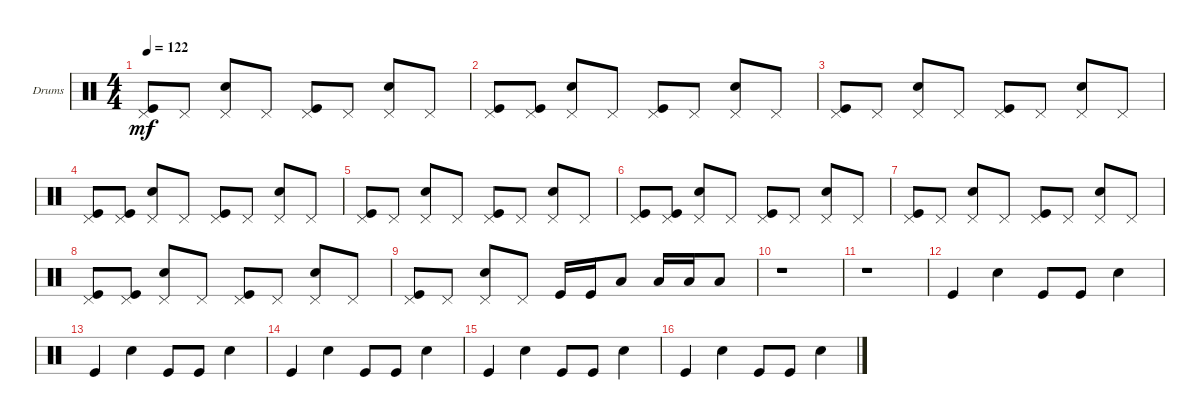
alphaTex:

\defaultSystemsLayout 4
\bracketExtendMode groupsimilarinstruments
\firstSystemTrackNameOrientation horizontal
\otherSystemsTrackNameOrientation horizontal
\track ("Drums" "Drums") {instrument percussion}
\staff {score}
\articulation defaults
\ts (4 4)
\tempo 122
\clef neutral
\scale
0.333333
\ks c
("Pedal Hi-Hat (hit)" "Kick (hit)").8{dy mf} "Pedal Hi-Hat (hit)".8 ("Pedal Hi-Hat (hit)" "Snare (hit) 2").8 "Pedal Hi-Hat (hit)".8 ("Pedal Hi-Hat (hit)" "Kick (hit)").8 "Pedal Hi-Hat (hit)".8 ("Pedal Hi-Hat (hit)" "Snare (hit) 2").8 "Pedal Hi-Hat (hit)".8 |
\scale
0.333333 ("Pedal Hi-Hat (hit)" "Kick (hit)").8 ("Pedal Hi-Hat (hit)" "Kick (hit)").8 ("Pedal Hi-Hat (hit)" "Snare (hit) 2").8 "Pedal Hi-Hat (hit)".8 ("Pedal Hi-Hat (hit)" "Kick (hit)").8 "Pedal Hi-Hat (hit)".8 ("Pedal Hi-Hat (hit)" "Snare (hit) 2").8 "Pedal Hi-Hat (hit)".8 |
\scale
0.333333 ("Pedal Hi-Hat (hit)" "Kick (hit)").8 "Pedal Hi-Hat (hit)".8 ("Pedal Hi-Hat (hit)" "Snare (hit) 2").8 "Pedal Hi-Hat (hit)".8 ("Pedal Hi-Hat (hit)" "Kick (hit)").8 "Pedal Hi-Hat (hit)".8 ("Pedal Hi-Hat (hit)" "Snare (hit) 2").8 "Pedal Hi-Hat (hit)".8 |
\scale
0.333333 ("Pedal Hi-Hat (hit)" "Kick (hit)").8 ("Pedal Hi-Hat (hit)" "Kick (hit)").8 ("Pedal Hi-Hat (hit)" "Snare (hit) 2").8 "Pedal Hi-Hat (hit)".8 ("Pedal Hi-Hat (hit)" "Kick (hit)").8 "Pedal Hi-Hat (hit)".8 ("Pedal Hi-Hat (hit)" "Snare (hit) 2").8 "Pedal Hi-Hat (hit)".8 |
\scale
0.333333 ("Pedal Hi-Hat (hit)" "Kick (hit)").8 "Pedal Hi-Hat (hit)".8 ("Pedal Hi-Hat (hit)" "Snare (hit) 2").8 "Pedal Hi-Hat (hit)".8 ("Pedal Hi-Hat (hit)" "Kick (hit)").8 "Pedal Hi-Hat (hit)".8 ("Pedal Hi-Hat (hit)" "Snare (hit) 2").8 "Pedal Hi-Hat (hit)".8 |
\scale
0.333333 ("Pedal Hi-Hat (hit)" "Kick (hit)").8 ("Pedal Hi-Hat (hit)" "Kick (hit)").8 ("Pedal Hi-Hat (hit)" "Snare (hit) 2").8 "Pedal Hi-Hat (hit)".8 ("Pedal Hi-Hat (hit)" "Kick (hit)").8 "Pedal Hi-Hat (hit)".8 ("Pedal Hi-Hat (hit)" "Snare (hit) 2").8 "Pedal Hi-Hat (hit)".8 |
\scale
0.333333 ("Pedal Hi-Hat (hit)" "Kick (hit)").8 "Pedal Hi-Hat (hit)".8 ("Pedal Hi-Hat (hit)" "Snare (hit) 2").8 "Pedal Hi-Hat (hit)".8 ("Pedal Hi-Hat (hit)" "Kick (hit)").8 "Pedal Hi-Hat (hit)".8 ("Pedal Hi-Hat (hit)" "Snare (hit) 2").8 "Pedal Hi-Hat (hit)".8 |
\scale
0.333333 ("Pedal Hi-Hat (hit)" "Kick (hit)").8 ("Pedal Hi-Hat (hit)" "Kick (hit)").8 ("Pedal Hi-Hat (hit)" "Snare (hit) 2").8 "Pedal Hi-Hat (hit)".8 ("Pedal Hi-Hat (hit)" "Kick (hit)").8 "Pedal Hi-Hat (hit)".8 ("Pedal Hi-Hat (hit)" "Snare (hit) 2").8 "Pedal Hi-Hat (hit)".8 |
\scale
0.333333 ("Pedal Hi-Hat (hit)" "Kick (hit)").8 "Pedal Hi-Hat (hit)".8 ("Pedal Hi-Hat (hit)" "Snare (hit) 2").8 "Pedal Hi-Hat (hit)".8 "Kick (hit)".16 "Kick (hit)".16 "Low Tom (hit)".8 "Low Tom (hit)".16 "Low Tom (hit)".16 "Low Tom (hit)".8 |
\scale
0.333333 r.1 |
\scale
0.333333 r.1 |
\scale
0.333333 "Kick (hit)".4 "Snare (hit) 2".4 "Kick (hit)".8 "Kick (hit)".8 "Snare (hit) 2".4 |
\scale
0.333333 "Kick (hit)".4 "Snare (hit) 2".4 "Kick (hit)".8 "Kick (hit)".8 "Snare (hit) 2".4 |
\scale
0.333333 "Kick (hit)".4 "Snare (hit) 2".4 "Kick (hit)".8 "Kick (hit)".8 "Snare (hit) 2".4 |
\scale
0.333333 "Kick (hit)".4 "Snare (hit) 2".4 "Kick (hit)".8 "Kick (hit)".8 "Snare (hit) 2".4 |
\scale
0.333333 "Kick (hit)".4 "Snare (hit) 2".4 "Kick (hit)".8 "Kick (hit)".8 "Snare (hit) 2".4
